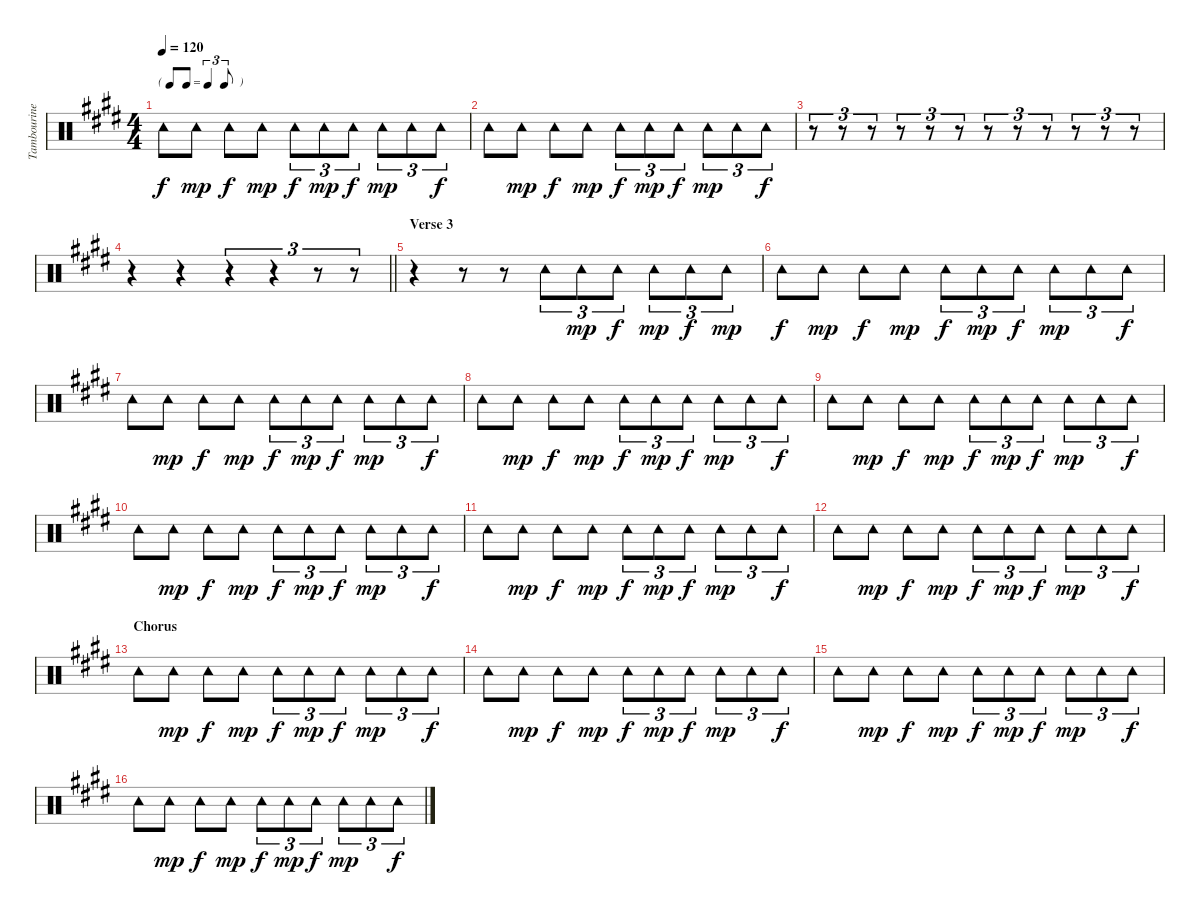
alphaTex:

\track ("Tambourine" "Tambourine") {instrument percussion}
\staff {score}
\articulation defaults
\ts (4 4)
\tf triplet8th
\tempo 120
\clef neutral
\ks e "Tambourine (hit)".8{dy f} "Tambourine (hit)".8{dy mp} "Tambourine (hit)".8{dy f} "Tambourine (hit)".8{dy mp} "Tambourine (hit)".8{tu (3 2) dy f} "Tambourine (hit)".8{tu (3 2) dy mp} "Tambourine (hit)".8{tu (3 2) dy f} "Tambourine (hit)".8{tu (3 2) dy mp} "Tambourine (hit)".8{tu (3 2)} "Tambourine (hit)".8{tu (3 2) dy f}
|
"Tambourine (hit)".8 "Tambourine (hit)".8{dy mp} "Tambourine (hit)".8{dy f} "Tambourine (hit)".8{dy mp} "Tambourine (hit)".8{tu (3 2) dy f} "Tambourine (hit)".8{tu (3 2) dy mp} "Tambourine (hit)".8{tu (3 2) dy f} "Tambourine (hit)".8{tu (3 2) dy mp} "Tambourine (hit)".8{tu (3 2)} "Tambourine (hit)".8{tu (3 2) dy f} |
r.8{tu (3 2)} r.8{tu (3 2)} r.8{tu (3 2)} r.8{tu (3 2)} r.8{tu (3 2)} r.8{tu (3 2)} r.8{tu (3 2)} r.8{tu (3 2)} r.8{tu (3 2)} r.8{tu (3 2)} r.8{tu (3 2)} r.8{tu (3 2)} |
\barLineRight lightlight
r.4 r.4 r.4{tu (3 2)} r.4{tu (3 2)} r.8{tu (3 2)} r.8{tu (3 2)} |
\section ("" "Verse 3")
r.4 r.8 r.8 "Tambourine (hit)".8{tu (3 2)} "Tambourine (hit)".8{tu (3 2) dy mp} "Tambourine (hit)".8{tu (3 2) dy f} "Tambourine (hit)".8{tu (3 2) dy mp} "Tambourine (hit)".8{tu (3 2) dy f} "Tambourine (hit)".8{tu (3 2) dy mp} |
"Tambourine (hit)".8{dy f} "Tambourine (hit)".8{dy mp} "Tambourine (hit)".8{dy f} "Tambourine (hit)".8{dy mp} "Tambourine (hit)".8{tu (3 2) dy f} "Tambourine (hit)".8{tu (3 2) dy mp} "Tambourine (hit)".8{tu (3 2) dy f} "Tambourine (hit)".8{tu (3 2) dy mp} "Tambourine (hit)".8{tu (3 2)} "Tambourine (hit)".8{tu (3 2) dy f} |
"Tambourine (hit)".8 "Tambourine (hit)".8{dy mp} "Tambourine (hit)".8{dy f} "Tambourine (hit)".8{dy mp} "Tambourine (hit)".8{tu (3 2) dy f} "Tambourine (hit)".8{tu (3 2) dy mp} "Tambourine (hit)".8{tu (3 2) dy f} "Tambourine (hit)".8{tu (3 2) dy mp} "Tambourine (hit)".8{tu (3 2)} "Tambourine (hit)".8{tu (3 2) dy f} |
"Tambourine (hit)".8 "Tambourine (hit)".8{dy mp} "Tambourine (hit)".8{dy f} "Tambourine (hit)".8{dy mp} "Tambourine (hit)".8{tu (3 2) dy f} "Tambourine (hit)".8{tu (3 2) dy mp} "Tambourine (hit)".8{tu (3 2) dy f} "Tambourine (hit)".8{tu (3 2) dy mp} "Tambourine (hit)".8{tu (3 2)} "Tambourine (hit)".8{tu (3 2) dy f} |
"Tambourine (hit)".8 "Tambourine (hit)".8{dy mp} "Tambourine (hit)".8{dy f} "Tambourine (hit)".8{dy mp} "Tambourine (hit)".8{tu (3 2) dy f} "Tambourine (hit)".8{tu (3 2) dy mp} "Tambourine (hit)".8{tu (3 2) dy f} "Tambourine (hit)".8{tu (3 2) dy mp} "Tambourine (hit)".8{tu (3 2)} "Tambourine (hit)".8{tu (3 2) dy f} |
"Tambourine (hit)".8 "Tambourine (hit)".8{dy mp} "Tambourine (hit)".8{dy f} "Tambourine (hit)".8{dy mp} "Tambourine (hit)".8{tu (3 2) dy f} "Tambourine (hit)".8{tu (3 2) dy mp} "Tambourine (hit)".8{tu (3 2) dy f} "Tambourine (hit)".8{tu (3 2) dy mp} "Tambourine (hit)".8{tu (3 2)} "Tambourine (hit)".8{tu (3 2) dy f} |
"Tambourine (hit)".8 "Tambourine (hit)".8{dy mp} "Tambourine (hit)".8{dy f} "Tambourine (hit)".8{dy mp} "Tambourine (hit)".8{tu (3 2) dy f} "Tambourine (hit)".8{tu (3 2) dy mp} "Tambourine (hit)".8{tu (3 2) dy f} "Tambourine (hit)".8{tu (3 2) dy mp} "Tambourine (hit)".8{tu (3 2)} "Tambourine (hit)".8{tu (3 2) dy f} |
"Tambourine (hit)".8 "Tambourine (hit)".8{dy mp} "Tambourine (hit)".8{dy f} "Tambourine (hit)".8{dy mp} "Tambourine (hit)".8{tu (3 2) dy f} "Tambourine (hit)".8{tu (3 2) dy mp} "Tambourine (hit)".8{tu (3 2) dy f} "Tambourine (hit)".8{tu (3 2) dy mp} "Tambourine (hit)".8{tu (3 2)} "Tambourine (hit)".8{tu (3 2) dy f} |
\section ("" "Chorus")
"Tambourine (hit)".8 "Tambourine (hit)".8{dy mp} "Tambourine (hit)".8{dy f} "Tambourine (hit)".8{dy mp} "Tambourine (hit)".8{tu (3 2) dy f} "Tambourine (hit)".8{tu (3 2) dy mp} "Tambourine (hit)".8{tu (3 2) dy f} "Tambourine (hit)".8{tu (3 2) dy mp} "Tambourine (hit)".8{tu (3 2)} "Tambourine (hit)".8{tu (3 2) dy f} |
"Tambourine (hit)".8 "Tambourine (hit)".8{dy mp} "Tambourine (hit)".8{dy f} "Tambourine (hit)".8{dy mp} "Tambourine (hit)".8{tu (3 2) dy f} "Tambourine (hit)".8{tu (3 2) dy mp} "Tambourine (hit)".8{tu (3 2) dy f} "Tambourine (hit)".8{tu (3 2) dy mp} "Tambourine (hit)".8{tu (3 2)} "Tambourine (hit)".8{tu (3 2) dy f} |
"Tambourine (hit)".8 "Tambourine (hit)".8{dy mp} "Tambourine (hit)".8{dy f} "Tambourine (hit)".8{dy mp} "Tambourine (hit)".8{tu (3 2) dy f} "Tambourine (hit)".8{tu (3 2) dy mp} "Tambourine (hit)".8{tu (3 2) dy f} "Tambourine (hit)".8{tu (3 2) dy mp} "Tambourine (hit)".8{tu (3 2)} "Tambourine (hit)".8{tu (3 2) dy f} |
"Tambourine (hit)".8 "Tambourine (hit)".8{dy mp} "Tambourine (hit)".8{dy f} "Tambourine (hit)".8{dy mp} "Tambourine (hit)".8{tu (3 2) dy f} "Tambourine (hit)".8{tu (3 2) dy mp} "Tambourine (hit)".8{tu (3 2) dy f} "Tambourine (hit)".8{tu (3 2) dy mp} "Tambourine (hit)".8{tu (3 2)} "Tambourine (hit)".8{tu (3 2) dy f}
